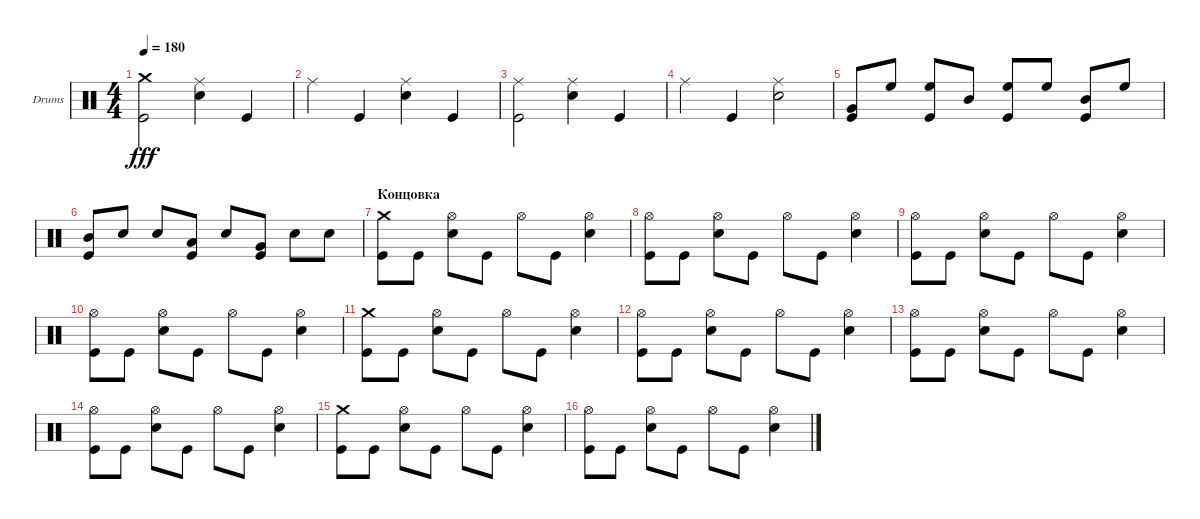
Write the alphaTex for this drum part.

\defaultSystemsLayout 4
\bracketExtendMode groupsimilarinstruments
\firstSystemTrackNameOrientation horizontal
\otherSystemsTrackNameOrientation horizontal
\track ("Барабаны" "Drums") {instrument percussion}
\staff {score}
\articulation defaults
\ts (4 4)
\tempo 180
\clef neutral
\ks c
("Crash medium (hit)" "Kick (hit)").2{dy fff} ("Ride (middle)" "Snare (hit) 2").4 "Kick (hit)".4 |
"Ride (middle)".4 "Kick (hit)".4 ("Ride (middle)" "Snare (hit) 2").4 "Kick (hit)".4 |
("Ride (middle)" "Kick (hit)").2 ("Ride (middle)" "Snare (hit) 2").4 "Kick (hit)".4 |
"Ride (middle)".4 "Kick (hit)".4 ("Ride (middle)" "Snare (hit) 2").2 |
("Very Low Tom (hit)" "Kick (hit)").8 "High Floor Tom (hit)".8 ("High Floor Tom (hit)" "Kick (hit)").8 "Mid Tom (hit)".8 ("High Floor Tom (hit)" "Kick (hit)").8 "High Floor Tom (hit)".8 ("Mid Tom (hit)" "Kick (hit)").8 "High Floor Tom (hit)".8 |
("Mid Tom (hit)" "Kick (hit)").8 "Snare (hit) 2".8 "Snare (hit) 2".8 ("Low Tom (hit)" "Kick (hit)").8 "Snare (hit) 2".8 ("Very Low Tom (hit)" "Kick (hit)").8 "Snare (hit) 2".8 "Snare (hit) 2".8 |
\section ("" "Концовка")
("Crash medium (hit)" "Kick (hit)").8 "Kick (hit)".8 ("Hi-Hat (open)" "Snare (hit) 2").8 "Kick (hit)".8 "Hi-Hat (open)".8 "Kick (hit)".8 ("Hi-Hat (open)" "Snare (hit) 2").4 |
("Hi-Hat (open)" "Kick (hit)").8 "Kick (hit)".8 ("Hi-Hat (open)" "Snare (hit) 2").8 "Kick (hit)".8 "Hi-Hat (open)".8 "Kick (hit)".8 ("Hi-Hat (open)" "Snare (hit) 2").4 |
("Hi-Hat (open)" "Kick (hit)").8 "Kick (hit)".8 ("Hi-Hat (open)" "Snare (hit) 2").8 "Kick (hit)".8 "Hi-Hat (open)".8 "Kick (hit)".8 ("Hi-Hat (open)" "Snare (hit) 2").4 |
("Hi-Hat (open)" "Kick (hit)").8 "Kick (hit)".8 ("Hi-Hat (open)" "Snare (hit) 2").8 "Kick (hit)".8 "Hi-Hat (open)".8 "Kick (hit)".8 ("Hi-Hat (open)" "Snare (hit) 2").4 |
("Crash medium (hit)" "Kick (hit)").8 "Kick (hit)".8 ("Hi-Hat (open)" "Snare (hit) 2").8 "Kick (hit)".8 "Hi-Hat (open)".8 "Kick (hit)".8 ("Hi-Hat (open)" "Snare (hit) 2").4 |
("Hi-Hat (open)" "Kick (hit)").8 "Kick (hit)".8 ("Hi-Hat (open)" "Snare (hit) 2").8 "Kick (hit)".8 "Hi-Hat (open)".8 "Kick (hit)".8 ("Hi-Hat (open)" "Snare (hit) 2").4 |
("Hi-Hat (open)" "Kick (hit)").8 "Kick (hit)".8 ("Hi-Hat (open)" "Snare (hit) 2").8 "Kick (hit)".8 "Hi-Hat (open)".8 "Kick (hit)".8 ("Hi-Hat (open)" "Snare (hit) 2").4 |
("Hi-Hat (open)" "Kick (hit)").8 "Kick (hit)".8 ("Hi-Hat (open)" "Snare (hit) 2").8 "Kick (hit)".8 "Hi-Hat (open)".8 "Kick (hit)".8 ("Hi-Hat (open)" "Snare (hit) 2").4 |
("Crash medium (hit)" "Kick (hit)").8 "Kick (hit)".8 ("Hi-Hat (open)" "Snare (hit) 2").8 "Kick (hit)".8 "Hi-Hat (open)".8 "Kick (hit)".8 ("Hi-Hat (open)" "Snare (hit) 2").4 |
("Hi-Hat (open)" "Kick (hit)").8 "Kick (hit)".8 ("Hi-Hat (open)" "Snare (hit) 2").8 "Kick (hit)".8 "Hi-Hat (open)".8 "Kick (hit)".8 ("Hi-Hat (open)" "Snare (hit) 2").4
